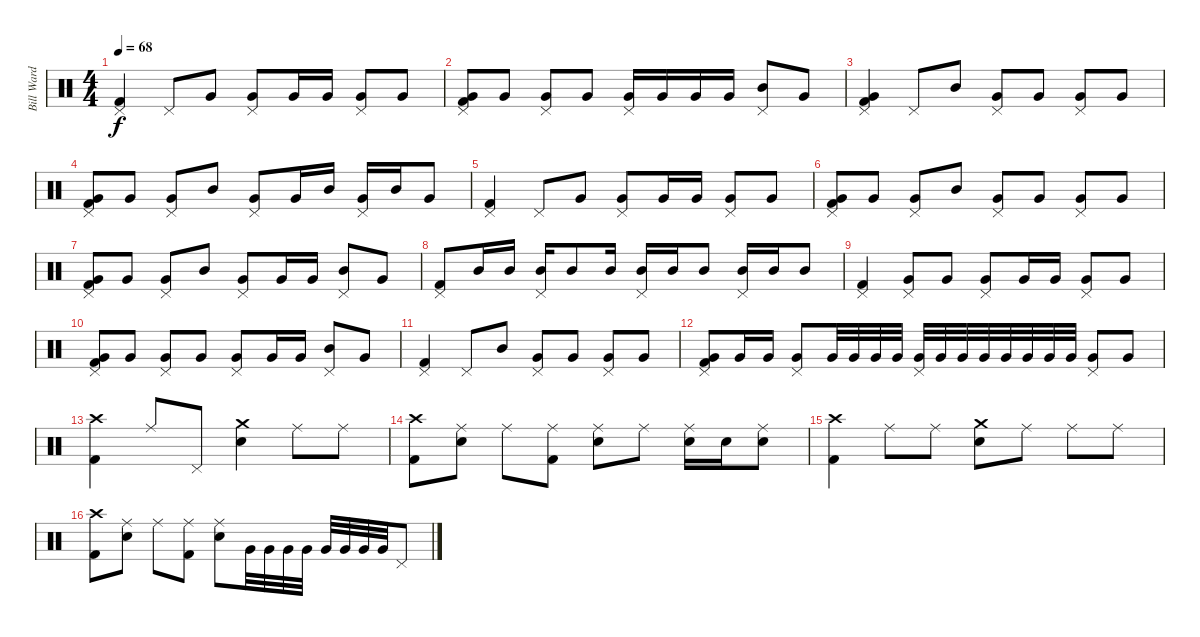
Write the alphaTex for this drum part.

\track ("Bill Ward - Drums" "Bill Ward ") {instrument percussion}
\staff {score}
\articulation defaults
\ts (4 4)
\tempo 68
\clef neutral
\ks c
("Pedal Hi-Hat (hit)" "Kick (hit) 2").4{dy f} "Pedal Hi-Hat (hit)".8 "Very Low Tom (hit)".8 ("Pedal Hi-Hat (hit)" "Very Low Tom (hit)").8 "Very Low Tom (hit)".16 "Very Low Tom (hit)".16 ("Pedal Hi-Hat (hit)" "Very Low Tom (hit)").8 "Very Low Tom (hit)".8 |
("Pedal Hi-Hat (hit)" "Very Low Tom (hit)" "Kick (hit) 2").8 "Very Low Tom (hit)".8 ("Pedal Hi-Hat (hit)" "Very Low Tom (hit)").8 "Very Low Tom (hit)".8 ("Pedal Hi-Hat (hit)" "Very Low Tom (hit)").16 "Very Low Tom (hit)".16 "Very Low Tom (hit)".16 "Very Low Tom (hit)".16 ("Pedal Hi-Hat (hit)" "Mid Tom (hit)").8 "Very Low Tom (hit)".8 |
("Pedal Hi-Hat (hit)" "Very Low Tom (hit)" "Kick (hit) 2").4 "Pedal Hi-Hat (hit)".8 "Mid Tom (hit)".8 ("Pedal Hi-Hat (hit)" "Very Low Tom (hit)").8 "Very Low Tom (hit)".8 ("Pedal Hi-Hat (hit)" "Very Low Tom (hit)").8 "Very Low Tom (hit)".8 |
("Pedal Hi-Hat (hit)" "Very Low Tom (hit)" "Kick (hit) 2").8 "Very Low Tom (hit)".8 ("Pedal Hi-Hat (hit)" "Very Low Tom (hit)").8 "Mid Tom (hit)".8 ("Pedal Hi-Hat (hit)" "Very Low Tom (hit)").8 "Very Low Tom (hit)".16 "Mid Tom (hit)".16 ("Pedal Hi-Hat (hit)" "Very Low Tom (hit)").16 "Mid Tom (hit)".16 "Very Low Tom (hit)".8 |
("Pedal Hi-Hat (hit)" "Kick (hit) 2").4 "Pedal Hi-Hat (hit)".8 "Very Low Tom (hit)".8 ("Pedal Hi-Hat (hit)" "Very Low Tom (hit)").8 "Very Low Tom (hit)".16 "Very Low Tom (hit)".16 ("Pedal Hi-Hat (hit)" "Very Low Tom (hit)").8 "Very Low Tom (hit)".8 |
("Pedal Hi-Hat (hit)" "Very Low Tom (hit)" "Kick (hit) 2").8 "Very Low Tom (hit)".8 ("Pedal Hi-Hat (hit)" "Very Low Tom (hit)").8 "Mid Tom (hit)".8 ("Pedal Hi-Hat (hit)" "Very Low Tom (hit)").8 "Very Low Tom (hit)".8 ("Pedal Hi-Hat (hit)" "Very Low Tom (hit)").8 "Very Low Tom (hit)".8 |
("Pedal Hi-Hat (hit)" "Very Low Tom (hit)" "Kick (hit) 2").8 "Very Low Tom (hit)".8 ("Pedal Hi-Hat (hit)" "Very Low Tom (hit)").8 "Mid Tom (hit)".8 ("Pedal Hi-Hat (hit)" "Very Low Tom (hit)").8 "Very Low Tom (hit)".16 "Very Low Tom (hit)".16 ("Pedal Hi-Hat (hit)" "Mid Tom (hit)").8 "Very Low Tom (hit)".8 |
("Pedal Hi-Hat (hit)" "Kick (hit) 2").8 "Mid Tom (hit)".16 "Mid Tom (hit)".16 ("Pedal Hi-Hat (hit)" "Mid Tom (hit)").16 "Mid Tom (hit)".8 "Mid Tom (hit)".16 ("Pedal Hi-Hat (hit)" "Mid Tom (hit)").16 "Mid Tom (hit)".16 "Mid Tom (hit)".8 ("Pedal Hi-Hat (hit)" "Mid Tom (hit)").16 "Mid Tom (hit)".16 "Mid Tom (hit)".8 |
("Pedal Hi-Hat (hit)" "Kick (hit) 2").4 ("Pedal Hi-Hat (hit)" "Very Low Tom (hit)").8 "Very Low Tom (hit)".8 ("Pedal Hi-Hat (hit)" "Very Low Tom (hit)").8 "Very Low Tom (hit)".16 "Very Low Tom (hit)".16 ("Pedal Hi-Hat (hit)" "Very Low Tom (hit)").8 "Very Low Tom (hit)".8 |
("Pedal Hi-Hat (hit)" "Very Low Tom (hit)" "Kick (hit) 2").8 "Very Low Tom (hit)".8 ("Pedal Hi-Hat (hit)" "Very Low Tom (hit)").8 "Very Low Tom (hit)".8 ("Pedal Hi-Hat (hit)" "Very Low Tom (hit)").8 "Very Low Tom (hit)".16 "Very Low Tom (hit)".16 ("Pedal Hi-Hat (hit)" "Mid Tom (hit)").8 "Very Low Tom (hit)".8 |
("Pedal Hi-Hat (hit)" "Kick (hit) 2").4 "Pedal Hi-Hat (hit)".8 "Mid Tom (hit)".8 ("Pedal Hi-Hat (hit)" "Very Low Tom (hit)").8 "Very Low Tom (hit)".8 ("Pedal Hi-Hat (hit)" "Very Low Tom (hit)").8 "Very Low Tom (hit)".8 |
("Pedal Hi-Hat (hit)" "Very Low Tom (hit)" "Kick (hit) 2").8 "Very Low Tom (hit)".16 "Very Low Tom (hit)".16 ("Pedal Hi-Hat (hit)" "Very Low Tom (hit)").8 "Very Low Tom (hit)".32 "Very Low Tom (hit)".32 "Very Low Tom (hit)".32 "Very Low Tom (hit)".32 ("Pedal Hi-Hat (hit)" "Very Low Tom (hit)").32 "Very Low Tom (hit)".32 "Very Low Tom (hit)".32 "Very Low Tom (hit)".32 "Very Low Tom (hit)".32 "Very Low Tom (hit)".32 "Very Low Tom (hit)".32 "Very Low Tom (hit)".32 ("Pedal Hi-Hat (hit)" "Very Low Tom (hit)").8 "Very Low Tom (hit)".8 |
("Crash high (hit)" "Kick (hit) 2").4 "Ride (middle)".8 "Pedal Hi-Hat (hit)".8 ("Crash medium (hit)" "Snare (hit) 2").4 "Ride (middle)".8 "Ride (middle)".8 |
("Crash high (hit)" "Kick (hit) 2").8 ("Ride (middle)" "Snare (hit) 2").8 "Ride (middle)".8 ("Ride (middle)" "Kick (hit) 2").8 ("Ride (middle)" "Snare (hit) 2").8 "Ride (middle)".8 ("Ride (middle)" "Snare (hit) 2").16 "Snare (hit) 2".16 ("Ride (middle)" "Snare (hit) 2").8 |
("Crash high (hit)" "Kick (hit) 2").4 "Ride (middle)".8 "Ride (middle)".8 ("Crash medium (hit)" "Snare (hit) 2").8 "Ride (middle)".8 "Ride (middle)".8 "Ride (middle)".8 |
("Crash high (hit)" "Kick (hit) 2").8 ("Ride (middle)" "Snare (hit) 2").8 "Ride (middle)".8 ("Ride (middle)" "Kick (hit) 2").8 ("Ride (middle)" "Snare (hit) 2").8 "Very Low Tom (hit)".32 "Very Low Tom (hit)".32 "Very Low Tom (hit)".32 "Very Low Tom (hit)".32 "Very Low Tom (hit)".32 "Very Low Tom (hit)".32 "Very Low Tom (hit)".32 "Very Low Tom (hit)".32 "Pedal Hi-Hat (hit)".8
